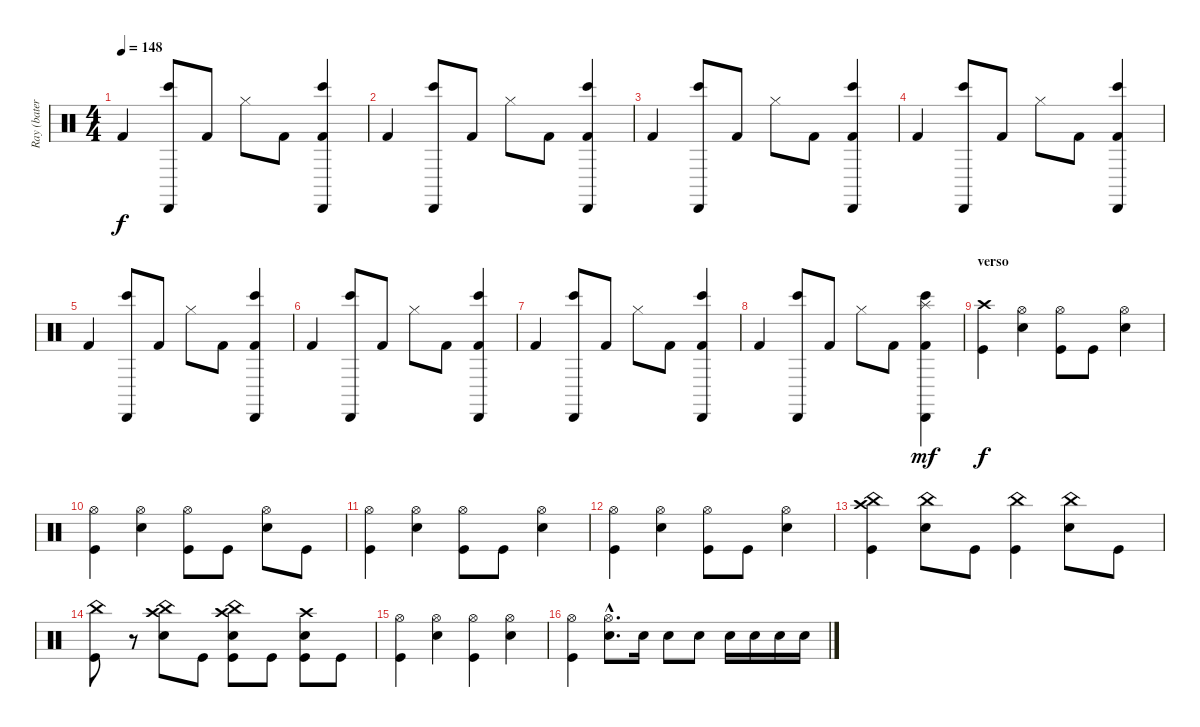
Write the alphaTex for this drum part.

\track ("Ray (batería)" "Ray (bater") {instrument percussion}
\staff {score}
\articulation defaults
\ts (4 4)
\tempo 148
\clef neutral
\ks c "Kick (hit) 2".4{dy f}
("Bongo High (hit)" "Cabasa (hit)").8 "Kick (hit) 2".8 "Hi-Hat (closed)".8 "Kick (hit) 2".8 ("Bongo High (hit)" "Cabasa (hit)" "Kick (hit) 2").4 |
"Kick (hit) 2".4 ("Bongo High (hit)" "Cabasa (hit)").8 "Kick (hit) 2".8 "Hi-Hat (closed)".8 "Kick (hit) 2".8 ("Bongo High (hit)" "Cabasa (hit)" "Kick (hit) 2").4 |
"Kick (hit) 2".4 ("Bongo High (hit)" "Cabasa (hit)").8 "Kick (hit) 2".8 "Hi-Hat (closed)".8 "Kick (hit) 2".8 ("Bongo High (hit)" "Cabasa (hit)" "Kick (hit) 2").4 |
"Kick (hit) 2".4 ("Bongo High (hit)" "Cabasa (hit)").8 "Kick (hit) 2".8 "Hi-Hat (closed)".8 "Kick (hit) 2".8 ("Bongo High (hit)" "Cabasa (hit)" "Kick (hit) 2").4 |
"Kick (hit) 2".4 ("Bongo High (hit)" "Cabasa (hit)").8 "Kick (hit) 2".8 "Hi-Hat (closed)".8 "Kick (hit) 2".8 ("Bongo High (hit)" "Cabasa (hit)" "Kick (hit) 2").4 |
"Kick (hit) 2".4 ("Bongo High (hit)" "Cabasa (hit)").8 "Kick (hit) 2".8 "Hi-Hat (closed)".8 "Kick (hit) 2".8 ("Bongo High (hit)" "Cabasa (hit)" "Kick (hit) 2").4 |
"Kick (hit) 2".4 ("Bongo High (hit)" "Cabasa (hit)").8 "Kick (hit) 2".8 "Hi-Hat (closed)".8 "Kick (hit) 2".8 ("Bongo High (hit)" "Cabasa (hit)" "Kick (hit) 2").4 |
"Kick (hit) 2".4 ("Bongo High (hit)" "Cabasa (hit)").8 "Kick (hit) 2".8 "Hi-Hat (closed)".8 "Kick (hit) 2".8 ("Splash (hit)" "Bongo High (hit)" "Cabasa (hit)" "Kick (hit) 2").4{dy mf} |
\section ("" "verso")
("Crash high (hit)" "Kick (hit)").4{dy f volume 15} ("Hi-Hat (open)" "Snare (hit) 2").4 ("Hi-Hat (open)" "Kick (hit)").8 "Kick (hit)".8 ("Hi-Hat (open)" "Snare (hit) 2").4 |
("Hi-Hat (open)" "Kick (hit)").4 ("Hi-Hat (open)" "Snare (hit) 2").4 ("Hi-Hat (open)" "Kick (hit)").8 "Kick (hit)".8 ("Hi-Hat (open)" "Snare (hit) 2").8 "Kick (hit)".8 |
("Hi-Hat (open)" "Kick (hit)").4 ("Hi-Hat (open)" "Snare (hit) 2").4 ("Hi-Hat (open)" "Kick (hit)").8 "Kick (hit)".8 ("Hi-Hat (open)" "Snare (hit) 2").4 |
("Hi-Hat (open)" "Kick (hit)").4 ("Hi-Hat (open)" "Snare (hit) 2").4 ("Hi-Hat (open)" "Kick (hit)").8 "Kick (hit)".8 ("Hi-Hat (open)" "Snare (hit) 2").4 |
("China (hit)" "Crash high (hit)" "Kick (hit)").4 ("China (hit)" "Snare (hit) 2").8 "Kick (hit)".8 ("China (hit)" "Kick (hit)").4 ("China (hit)" "Snare (hit) 2").8 "Kick (hit)".8 |
("China (hit)" "Kick (hit)").8 r.8 ("China (hit)" "Crash high (hit)" "Snare (hit) 2").8 "Kick (hit)".8 ("China (hit)" "Crash high (hit)" "Snare (hit) 2" "Kick (hit)").8 "Kick (hit)".8 ("Crash high (hit)" "Snare (hit) 2" "Kick (hit)").8 "Kick (hit)".8 |
("Hi-Hat (open)" "Kick (hit)").4 ("Hi-Hat (open)" "Snare (hit) 2").4 ("Hi-Hat (open)" "Kick (hit)").4 ("Hi-Hat (open)" "Snare (hit) 2").4 |
("Hi-Hat (open)" "Kick (hit)").4 ("Hi-Hat (open)"{hac} "Snare (hit) 2"{hac}).8{d} "Snare (hit) 2".16 "Snare (hit) 2".8 "Snare (hit) 2".8 "Snare (hit) 2".16 "Snare (hit) 2".16 "Snare (hit) 2".16 "Snare (hit) 2".16
